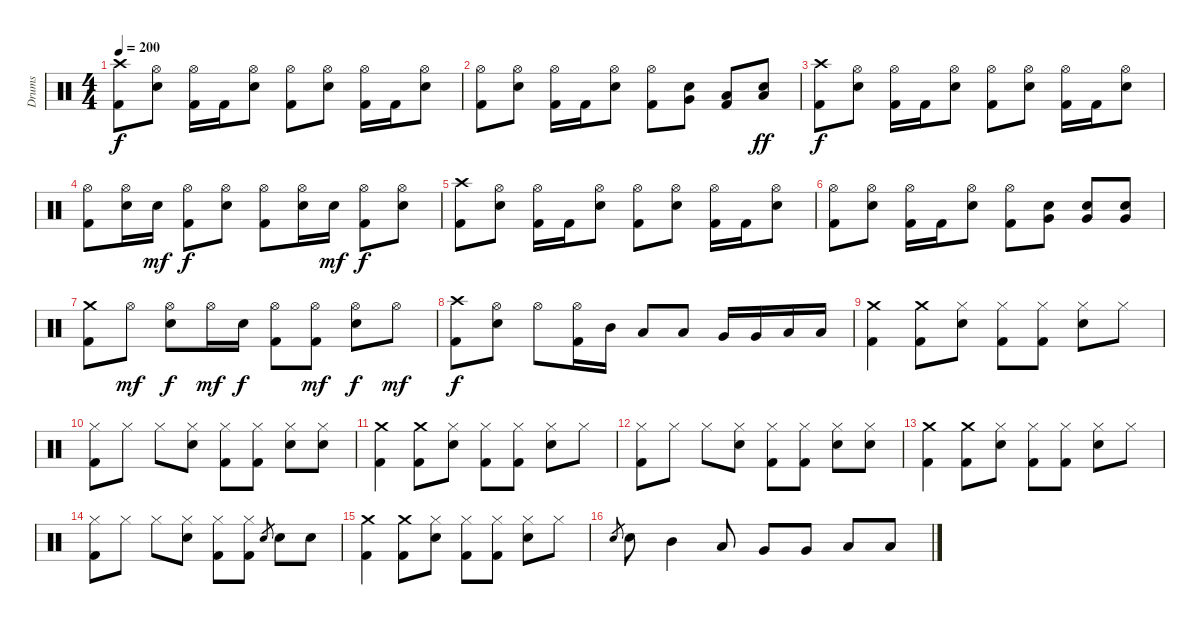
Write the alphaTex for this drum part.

\track ("Drums" "Drums") {instrument percussion}
\staff {score}
\articulation defaults
\ts (4 4)
\tempo 200
\clef neutral
\ks c
("Crash high (hit)" "Kick (hit) 2").8{dy f} ("Hi-Hat (open)" "Electric Snare (hit)").8 ("Hi-Hat (open)" "Kick (hit) 2").16 "Kick (hit) 2".16 ("Hi-Hat (open)" "Electric Snare (hit)").8 ("Hi-Hat (open)" "Kick (hit) 2").8 ("Hi-Hat (open)" "Electric Snare (hit)").8 ("Hi-Hat (open)" "Kick (hit) 2").16 "Kick (hit) 2".16 ("Hi-Hat (open)" "Electric Snare (hit)").8 |
("Hi-Hat (open)" "Kick (hit) 2").8 ("Hi-Hat (open)" "Electric Snare (hit)").8 ("Hi-Hat (open)" "Kick (hit) 2").16 "Kick (hit) 2".16 ("Hi-Hat (open)" "Electric Snare (hit)").8 ("Hi-Hat (open)" "Kick (hit) 2").8 ("Very Low Tom (hit)" "Electric Snare (hit)").8 ("Low Floor Tom (hit)" "Kick (hit) 2").8 ("Low Floor Tom (hit)" "Electric Snare (hit)").8{dy ff} |
("Crash high (hit)" "Kick (hit) 2").8{dy f} ("Hi-Hat (open)" "Electric Snare (hit)").8 ("Hi-Hat (open)" "Kick (hit) 2").16 "Kick (hit) 2".16 ("Hi-Hat (open)" "Electric Snare (hit)").8 ("Hi-Hat (open)" "Kick (hit) 2").8 ("Hi-Hat (open)" "Electric Snare (hit)").8 ("Hi-Hat (open)" "Kick (hit) 2").16 "Kick (hit) 2".16 ("Hi-Hat (open)" "Electric Snare (hit)").8 |
("Hi-Hat (open)" "Kick (hit) 2").8 ("Hi-Hat (open)" "Electric Snare (hit)").16 "Electric Snare (hit)".16{dy mf} ("Hi-Hat (open)" "Kick (hit) 2").8{dy f} ("Hi-Hat (open)" "Electric Snare (hit)").8 ("Hi-Hat (open)" "Kick (hit) 2").8 ("Hi-Hat (open)" "Electric Snare (hit)").16 "Electric Snare (hit)".16{dy mf} ("Hi-Hat (open)" "Kick (hit) 2").8{dy f} ("Hi-Hat (open)" "Electric Snare (hit)").8 |
("Crash high (hit)" "Kick (hit) 2").8 ("Hi-Hat (open)" "Electric Snare (hit)").8 ("Hi-Hat (open)" "Kick (hit) 2").16 "Kick (hit) 2".16 ("Hi-Hat (open)" "Electric Snare (hit)").8 ("Hi-Hat (open)" "Kick (hit) 2").8 ("Hi-Hat (open)" "Electric Snare (hit)").8 ("Hi-Hat (open)" "Kick (hit) 2").16 "Kick (hit) 2".16 ("Hi-Hat (open)" "Electric Snare (hit)").8 |
("Hi-Hat (open)" "Kick (hit) 2").8 ("Hi-Hat (open)" "Electric Snare (hit)").8 ("Hi-Hat (open)" "Kick (hit) 2").16 "Kick (hit) 2".16 ("Hi-Hat (open)" "Electric Snare (hit)").8 ("Hi-Hat (open)" "Kick (hit) 2").8 ("Very Low Tom (hit)" "Electric Snare (hit)").8 ("Very Low Tom (hit)" "Electric Snare (hit)").8 ("Very Low Tom (hit)" "Electric Snare (hit)").8 |
("Crash medium (hit)" "Kick (hit) 2").8 "Hi-Hat (open)".8{dy mf} ("Hi-Hat (open)" "Electric Snare (hit)").8{dy f} "Hi-Hat (open)".16{dy mf} "Electric Snare (hit)".16{dy f} ("Hi-Hat (open)" "Kick (hit) 2").8 ("Hi-Hat (open)" "Kick (hit) 2").8{dy mf} ("Hi-Hat (open)" "Electric Snare (hit)").8{dy f} "Hi-Hat (open)".8{dy mf} |
("Crash high (hit)" "Kick (hit) 2").8{dy f} ("Hi-Hat (open)" "Electric Snare (hit)").8 "Hi-Hat (open)".8 ("Hi-Hat (open)" "Kick (hit) 2").16 "Mid Tom (hit)".16 "Low Tom (hit)".8 "Low Tom (hit)".8 "Very Low Tom (hit)".16 "Very Low Tom (hit)".16 "Low Floor Tom (hit)".16 "Low Floor Tom (hit)".16 |
("Crash medium (hit)" "Kick (hit) 2").4 ("Crash medium (hit)" "Kick (hit) 2").8 ("Hi-Hat (closed)" "Electric Snare (hit)").8 ("Hi-Hat (closed)" "Kick (hit) 2").8 ("Hi-Hat (closed)" "Kick (hit) 2").8 ("Hi-Hat (closed)" "Electric Snare (hit)").8 "Hi-Hat (closed)".8 |
("Hi-Hat (closed)" "Kick (hit) 2").8 "Hi-Hat (closed)".8 "Hi-Hat (closed)".8 ("Hi-Hat (closed)" "Electric Snare (hit)").8 ("Hi-Hat (closed)" "Kick (hit) 2").8 ("Hi-Hat (closed)" "Kick (hit) 2").8 ("Hi-Hat (closed)" "Electric Snare (hit)").8 ("Hi-Hat (closed)" "Electric Snare (hit)").8 |
("Crash medium (hit)" "Kick (hit) 2").4 ("Crash medium (hit)" "Kick (hit) 2").8 ("Hi-Hat (closed)" "Electric Snare (hit)").8 ("Hi-Hat (closed)" "Kick (hit) 2").8 ("Hi-Hat (closed)" "Kick (hit) 2").8 ("Hi-Hat (closed)" "Electric Snare (hit)").8 "Hi-Hat (closed)".8 |
("Hi-Hat (closed)" "Kick (hit) 2").8 "Hi-Hat (closed)".8 "Hi-Hat (closed)".8 ("Hi-Hat (closed)" "Electric Snare (hit)").8 ("Hi-Hat (closed)" "Kick (hit) 2").8 ("Hi-Hat (closed)" "Kick (hit) 2").8 ("Hi-Hat (closed)" "Electric Snare (hit)").8 ("Hi-Hat (closed)" "Electric Snare (hit)").8 |
("Crash medium (hit)" "Kick (hit) 2").4 ("Crash medium (hit)" "Kick (hit) 2").8 ("Hi-Hat (closed)" "Electric Snare (hit)").8 ("Hi-Hat (closed)" "Kick (hit) 2").8 ("Hi-Hat (closed)" "Kick (hit) 2").8 ("Hi-Hat (closed)" "Electric Snare (hit)").8 "Hi-Hat (closed)".8 |
("Hi-Hat (closed)" "Kick (hit) 2").8 "Hi-Hat (closed)".8 "Hi-Hat (closed)".8 ("Hi-Hat (closed)" "Electric Snare (hit)").8 ("Hi-Hat (closed)" "Kick (hit) 2").8 ("Hi-Hat (closed)" "Kick (hit) 2").8 "Electric Snare (hit)".8{gr} "Electric Snare (hit)".8 "Electric Snare (hit)".8 |
("Crash medium (hit)" "Kick (hit) 2").4 ("Crash medium (hit)" "Kick (hit) 2").8 ("Hi-Hat (closed)" "Electric Snare (hit)").8 ("Hi-Hat (closed)" "Kick (hit) 2").8 ("Hi-Hat (closed)" "Kick (hit) 2").8 ("Hi-Hat (closed)" "Electric Snare (hit)").8 "Hi-Hat (closed)".8 |
"Electric Snare (hit)".8{gr} "Electric Snare (hit)".8 "Mid Tom (hit)".4 "Low Tom (hit)".8 "Very Low Tom (hit)".8 "Very Low Tom (hit)".8 "Low Floor Tom (hit)".8 "Low Floor Tom (hit)".8
